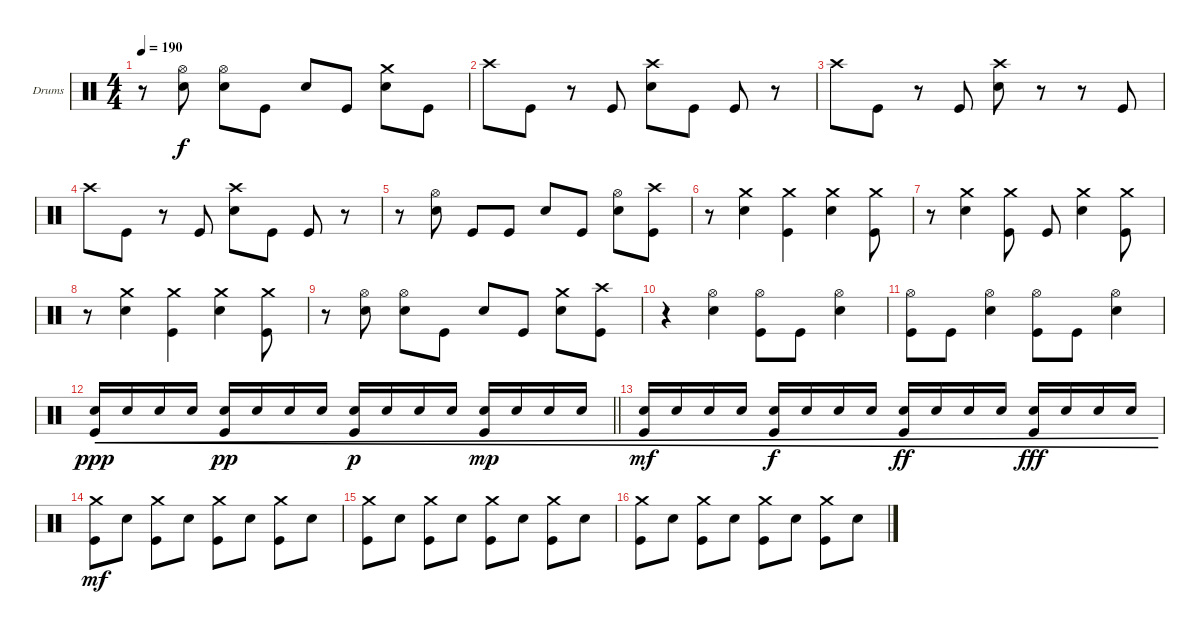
\bracketExtendMode groupsimilarinstruments
\firstSystemTrackNameOrientation horizontal
\otherSystemsTrackNameOrientation horizontal
\track ("Drumkit" "Drums") {instrument percussion}
\staff {score}
\articulation defaults
\ts (4 4)
\tempo 190
\clef neutral
\ks c
r.8{dy f} ("Snare (hit) 2" "Hi-Hat (open)").8 ("Snare (hit) 2" "Hi-Hat (open)").8 "Kick (hit)".8 "Snare (hit) 2".8 "Kick (hit)".8 ("Snare (hit) 2" "Crash medium (hit)").8 "Kick (hit)".8 |
"Crash high (hit)".8 "Kick (hit)".8 r.8 "Kick (hit)".8 ("Snare (hit) 2" "Crash high (hit)").8 "Kick (hit)".8 "Kick (hit)".8 r.8 |
"Crash high (hit)".8 "Kick (hit)".8 r.8 "Kick (hit)".8 ("Snare (hit) 2" "Crash high (hit)").8 r.8 r.8 "Kick (hit)".8 |
"Crash high (hit)".8 "Kick (hit)".8 r.8 "Kick (hit)".8 ("Snare (hit) 2" "Crash high (hit)").8 "Kick (hit)".8 "Kick (hit)".8 r.8 |
r.8 ("Snare (hit) 2" "Hi-Hat (open)").8 "Kick (hit)".8 "Kick (hit)".8 "Snare (hit) 2".8 "Kick (hit)".8 ("Snare (hit) 2" "Hi-Hat (open)").8 ("Kick (hit)" "Crash high (hit)").8 |
\scale
0.333333 r.8 ("Snare (hit) 2" "Crash medium (hit)").4 ("Kick (hit)" "Crash medium (hit)").4 ("Snare (hit) 2" "Crash medium (hit)").4 ("Kick (hit)" "Crash medium (hit)").8 |
\scale
0.333333 r.8 ("Snare (hit) 2" "Crash medium (hit)").4 ("Kick (hit)" "Crash medium (hit)").8 "Kick (hit)".8 ("Snare (hit) 2" "Crash medium (hit)").4 ("Kick (hit)" "Crash medium (hit)").8 |
\scale
0.333333 r.8 ("Snare (hit) 2" "Crash medium (hit)").4 ("Kick (hit)" "Crash medium (hit)").4 ("Snare (hit) 2" "Crash medium (hit)").4 ("Kick (hit)" "Crash medium (hit)").8 |
\scale
0.333333 r.8 ("Snare (hit) 2" "Hi-Hat (open)").8 ("Snare (hit) 2" "Hi-Hat (open)").8 "Kick (hit)".8 "Snare (hit) 2".8 "Kick (hit)".8 ("Snare (hit) 2" "Crash medium (hit)").8 ("Kick (hit)" "Crash high (hit)").8 |
\scale
0.333333 r.4 ("Snare (hit) 2" "Hi-Hat (open)").4 ("Kick (hit)" "Hi-Hat (open)").8 "Kick (hit)".8 ("Snare (hit) 2" "Hi-Hat (open)").4 |
\scale
0.333333 ("Kick (hit)" "Hi-Hat (open)").8 "Kick (hit)".8 ("Snare (hit) 2" "Hi-Hat (open)").4 ("Kick (hit)" "Hi-Hat (open)").8 "Kick (hit)".8 ("Snare (hit) 2" "Hi-Hat (open)").4 |
\scale
0.333333
\barLineRight lightlight
("Snare (hit) 2" "Kick (hit)").16{cre dy ppp} "Snare (hit) 2".16{cre} "Snare (hit) 2".16{cre} "Snare (hit) 2".16{cre} ("Snare (hit) 2" "Kick (hit)").16{cre dy pp} "Snare (hit) 2".16{cre} "Snare (hit) 2".16{cre} "Snare (hit) 2".16{cre} ("Snare (hit) 2" "Kick (hit)").16{cre dy p} "Snare (hit) 2".16{cre} "Snare (hit) 2".16{cre} "Snare (hit) 2".16{cre} ("Snare (hit) 2" "Kick (hit)").16{cre dy mp} "Snare (hit) 2".16{cre} "Snare (hit) 2".16{cre} "Snare (hit) 2".16{cre} |
\scale
0.333333 ("Snare (hit) 2" "Kick (hit)").16{cre dy mf} "Snare (hit) 2".16{cre} "Snare (hit) 2".16{cre} "Snare (hit) 2".16{cre} ("Snare (hit) 2" "Kick (hit)").16{cre dy f} "Snare (hit) 2".16{cre} "Snare (hit) 2".16{cre} "Snare (hit) 2".16{cre} ("Snare (hit) 2" "Kick (hit)").16{cre dy ff} "Snare (hit) 2".16{cre} "Snare (hit) 2".16{cre} "Snare (hit) 2".16{cre} ("Snare (hit) 2" "Kick (hit)").16{cre dy fff} "Snare (hit) 2".16{cre} "Snare (hit) 2".16{cre} "Snare (hit) 2".16{cre} |
\scale
0.333333 ("Crash medium (hit)" "Kick (hit)").8{dy mf} "Snare (hit) 2".8 ("Crash medium (hit)" "Kick (hit)").8 "Snare (hit) 2".8 ("Crash medium (hit)" "Kick (hit)").8 "Snare (hit) 2".8 ("Crash medium (hit)" "Kick (hit)").8 "Snare (hit) 2".8 |
\scale
0.333333 ("Crash medium (hit)" "Kick (hit)").8 "Snare (hit) 2".8 ("Crash medium (hit)" "Kick (hit)").8 "Snare (hit) 2".8 ("Crash medium (hit)" "Kick (hit)").8 "Snare (hit) 2".8 ("Crash medium (hit)" "Kick (hit)").8 "Snare (hit) 2".8 |
\scale
0.333333 ("Crash medium (hit)" "Kick (hit)").8 "Snare (hit) 2".8 ("Crash medium (hit)" "Kick (hit)").8 "Snare (hit) 2".8 ("Crash medium (hit)" "Kick (hit)").8 "Snare (hit) 2".8 ("Crash medium (hit)" "Kick (hit)").8 "Snare (hit) 2".8
